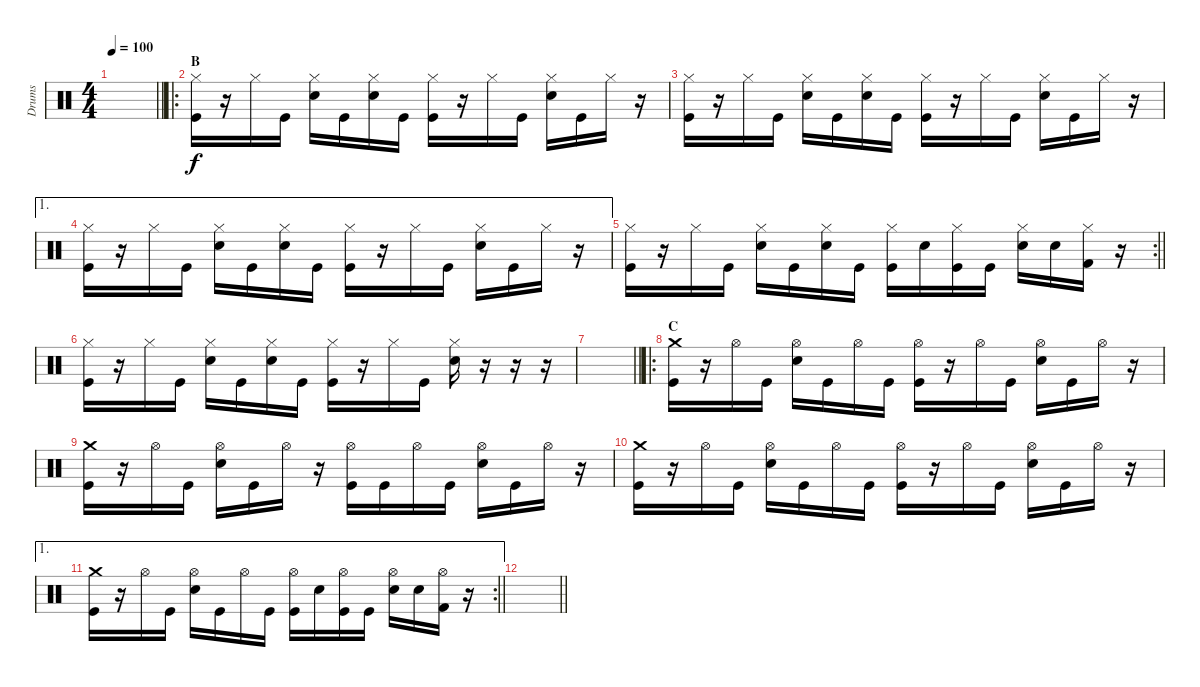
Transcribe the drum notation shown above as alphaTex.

\track ("Drums" "Drums") {instrument percussion}
\staff {score}
\articulation defaults
\ts (4 4)
\tempo 100
\clef neutral
\barLineRight lightlight
\ks c
|
\ro
\section ("" "B")
("Hi-Hat (closed)" "Kick (hit)").16 r.16 "Hi-Hat (closed)".16 "Kick (hit)".16 ("Hi-Hat (closed)" "Snare (hit) 2").16 "Kick (hit)".16 ("Hi-Hat (closed)" "Snare (hit) 2").16 "Kick (hit)".16 ("Hi-Hat (closed)" "Kick (hit)").16 r.16 "Hi-Hat (closed)".16 "Kick (hit)".16 ("Hi-Hat (closed)" "Snare (hit) 2").16 "Kick (hit)".16 "Hi-Hat (closed)".16 r.16 |
("Hi-Hat (closed)" "Kick (hit)").16 r.16 "Hi-Hat (closed)".16 "Kick (hit)".16 ("Hi-Hat (closed)" "Snare (hit) 2").16 "Kick (hit)".16 ("Hi-Hat (closed)" "Snare (hit) 2").16 "Kick (hit)".16 ("Hi-Hat (closed)" "Kick (hit)").16 r.16 "Hi-Hat (closed)".16 "Kick (hit)".16 ("Hi-Hat (closed)" "Snare (hit) 2").16 "Kick (hit)".16 "Hi-Hat (closed)".16 r.16 |
\ae 1
("Hi-Hat (closed)" "Kick (hit)").16 r.16 "Hi-Hat (closed)".16 "Kick (hit)".16 ("Hi-Hat (closed)" "Snare (hit) 2").16 "Kick (hit)".16 ("Hi-Hat (closed)" "Snare (hit) 2").16 "Kick (hit)".16 ("Hi-Hat (closed)" "Kick (hit)").16 r.16 "Hi-Hat (closed)".16 "Kick (hit)".16 ("Hi-Hat (closed)" "Snare (hit) 2").16 "Kick (hit)".16 "Hi-Hat (closed)".16 r.16 |
\rc 2
\barLineRight lightlight
("Hi-Hat (closed)" "Kick (hit)").16 r.16 "Hi-Hat (closed)".16 "Kick (hit)".16 ("Hi-Hat (closed)" "Snare (hit) 2").16 "Kick (hit)".16 ("Hi-Hat (closed)" "Snare (hit) 2").16 "Kick (hit)".16 ("Hi-Hat (closed)" "Kick (hit)").16 "Snare (hit) 2".16 ("Hi-Hat (closed)" "Kick (hit)").16 "Kick (hit)".16 ("Hi-Hat (closed)" "Snare (hit) 2").16 "Snare (hit) 2".16 ("Hi-Hat (closed)" "Kick (hit) 2").16 r.16 |
("Hi-Hat (closed)" "Kick (hit)").16 r.16 "Hi-Hat (closed)".16 "Kick (hit)".16 ("Hi-Hat (closed)" "Snare (hit) 2").16 "Kick (hit)".16 ("Hi-Hat (closed)" "Snare (hit) 2").16 "Kick (hit)".16 ("Hi-Hat (closed)" "Kick (hit)").16 r.16 "Hi-Hat (closed)".16 "Kick (hit)".16 ("Hi-Hat (closed)" "Snare (hit) 2").16 r.16 r.16 r.16 |
\barLineRight lightlight
|
\ro
\section ("" "C")
("Crash medium (hit)" "Kick (hit)").16 r.16 "Hi-Hat (open)".16 "Kick (hit)".16 ("Hi-Hat (open)" "Snare (hit) 2").16 "Kick (hit)".16 "Hi-Hat (open)".16 "Kick (hit)".16 ("Hi-Hat (open)" "Kick (hit)").16 r.16 "Hi-Hat (open)".16 "Kick (hit)".16 ("Hi-Hat (open)" "Snare (hit) 2").16 "Kick (hit)".16 "Hi-Hat (open)".16 r.16 |
("Crash medium (hit)" "Kick (hit)").16 r.16 "Hi-Hat (open)".16 "Kick (hit)".16 ("Hi-Hat (open)" "Snare (hit) 2").16 "Kick (hit)".16 "Hi-Hat (open)".16 r.16 ("Hi-Hat (open)" "Kick (hit)").16 "Kick (hit)".16 "Hi-Hat (open)".16 "Kick (hit)".16 ("Hi-Hat (open)" "Snare (hit) 2").16 "Kick (hit)".16 "Hi-Hat (open)".16 r.16 |
("Crash medium (hit)" "Kick (hit)").16 r.16 "Hi-Hat (open)".16 "Kick (hit)".16 ("Hi-Hat (open)" "Snare (hit) 2").16 "Kick (hit)".16 "Hi-Hat (open)".16 "Kick (hit)".16 ("Hi-Hat (open)" "Kick (hit)").16 r.16 "Hi-Hat (open)".16 "Kick (hit)".16 ("Hi-Hat (open)" "Snare (hit) 2").16 "Kick (hit)".16 "Hi-Hat (open)".16 r.16 |
\ae 1
\rc 2
\barLineRight lightlight
("Crash medium (hit)" "Kick (hit)").16 r.16 "Hi-Hat (open)".16 "Kick (hit)".16 ("Hi-Hat (open)" "Snare (hit) 2").16 "Kick (hit)".16 "Hi-Hat (open)".16 "Kick (hit)".16 ("Hi-Hat (open)" "Kick (hit)").16 "Snare (hit) 2".16 ("Hi-Hat (open)" "Kick (hit)").16 "Kick (hit)".16 ("Hi-Hat (open)" "Snare (hit) 2").16 "Snare (hit) 2".16 ("Hi-Hat (open)" "Kick (hit) 2").16 r.16 |
\barLineRight lightlight
